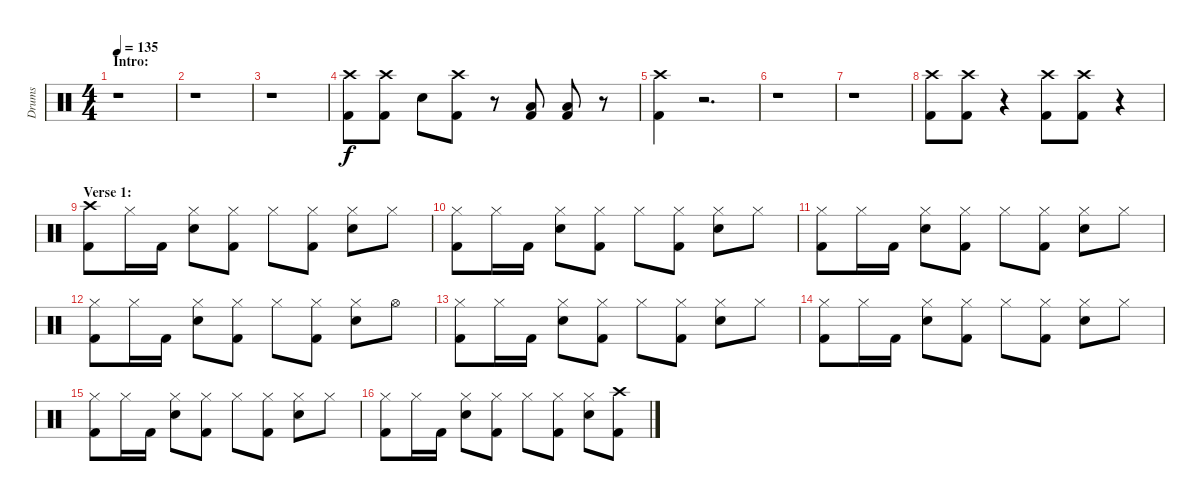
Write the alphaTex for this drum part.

\track ("Drums" "Drums") {instrument percussion}
\staff {score}
\articulation defaults
\ts (4 4)
\section ("" "Intro:")
\tempo 135
\clef neutral
\ks c
r.1{dy f} |
r.1 |
r.1 |
("Crash high (hit)" "Kick (hit) 2").8 ("Crash high (hit)" "Kick (hit) 2").8 "Electric Snare (hit)".8 ("Crash high (hit)" "Kick (hit) 2").8 r.8 ("Low Floor Tom (hit)" "Kick (hit) 2").8 ("Low Floor Tom (hit)" "Kick (hit) 2").8 r.8 |
("Crash high (hit)" "Kick (hit) 2").4 r.2{d} |
r.1 |
r.1 |
("Crash high (hit)" "Kick (hit) 2").8 ("Crash high (hit)" "Kick (hit) 2").8 r.4 ("Crash high (hit)" "Kick (hit) 2").8 ("Crash high (hit)" "Kick (hit) 2").8 r.4 |
\section ("" "Verse 1:")
("Crash high (hit)" "Kick (hit) 2").8 "Hi-Hat (closed)".16 "Kick (hit) 2".16 ("Hi-Hat (closed)" "Electric Snare (hit)").8 ("Hi-Hat (closed)" "Kick (hit) 2").8 "Hi-Hat (closed)".8 ("Hi-Hat (closed)" "Kick (hit) 2").8 ("Hi-Hat (closed)" "Electric Snare (hit)").8 "Hi-Hat (closed)".8 |
("Hi-Hat (closed)" "Kick (hit) 2").8 "Hi-Hat (closed)".16 "Kick (hit) 2".16 ("Hi-Hat (closed)" "Electric Snare (hit)").8 ("Hi-Hat (closed)" "Kick (hit) 2").8 "Hi-Hat (closed)".8 ("Hi-Hat (closed)" "Kick (hit) 2").8 ("Hi-Hat (closed)" "Electric Snare (hit)").8 "Hi-Hat (closed)".8 |
("Hi-Hat (closed)" "Kick (hit) 2").8 "Hi-Hat (closed)".16 "Kick (hit) 2".16 ("Hi-Hat (closed)" "Electric Snare (hit)").8 ("Hi-Hat (closed)" "Kick (hit) 2").8 "Hi-Hat (closed)".8 ("Hi-Hat (closed)" "Kick (hit) 2").8 ("Hi-Hat (closed)" "Electric Snare (hit)").8 "Hi-Hat (closed)".8 |
("Hi-Hat (closed)" "Kick (hit) 2").8 "Hi-Hat (closed)".16 "Kick (hit) 2".16 ("Hi-Hat (closed)" "Electric Snare (hit)").8 ("Hi-Hat (closed)" "Kick (hit) 2").8 "Hi-Hat (closed)".8 ("Hi-Hat (closed)" "Kick (hit) 2").8 ("Hi-Hat (closed)" "Electric Snare (hit)").8 "Hi-Hat (open)".8 |
("Hi-Hat (closed)" "Kick (hit) 2").8 "Hi-Hat (closed)".16 "Kick (hit) 2".16 ("Hi-Hat (closed)" "Electric Snare (hit)").8 ("Hi-Hat (closed)" "Kick (hit) 2").8 "Hi-Hat (closed)".8 ("Hi-Hat (closed)" "Kick (hit) 2").8 ("Hi-Hat (closed)" "Electric Snare (hit)").8 "Hi-Hat (closed)".8 |
("Hi-Hat (closed)" "Kick (hit) 2").8 "Hi-Hat (closed)".16 "Kick (hit) 2".16 ("Hi-Hat (closed)" "Electric Snare (hit)").8 ("Hi-Hat (closed)" "Kick (hit) 2").8 "Hi-Hat (closed)".8 ("Hi-Hat (closed)" "Kick (hit) 2").8 ("Hi-Hat (closed)" "Electric Snare (hit)").8 "Hi-Hat (closed)".8 |
("Hi-Hat (closed)" "Kick (hit) 2").8 "Hi-Hat (closed)".16 "Kick (hit) 2".16 ("Hi-Hat (closed)" "Electric Snare (hit)").8 ("Hi-Hat (closed)" "Kick (hit) 2").8 "Hi-Hat (closed)".8 ("Hi-Hat (closed)" "Kick (hit) 2").8 ("Hi-Hat (closed)" "Electric Snare (hit)").8 "Hi-Hat (closed)".8 |
("Hi-Hat (closed)" "Kick (hit) 2").8 "Hi-Hat (closed)".16 "Kick (hit) 2".16 ("Hi-Hat (closed)" "Electric Snare (hit)").8 ("Hi-Hat (closed)" "Kick (hit) 2").8 "Hi-Hat (closed)".8 ("Hi-Hat (closed)" "Kick (hit) 2").8 ("Hi-Hat (closed)" "Electric Snare (hit)").8 ("Crash high (hit)" "Kick (hit) 2").8
